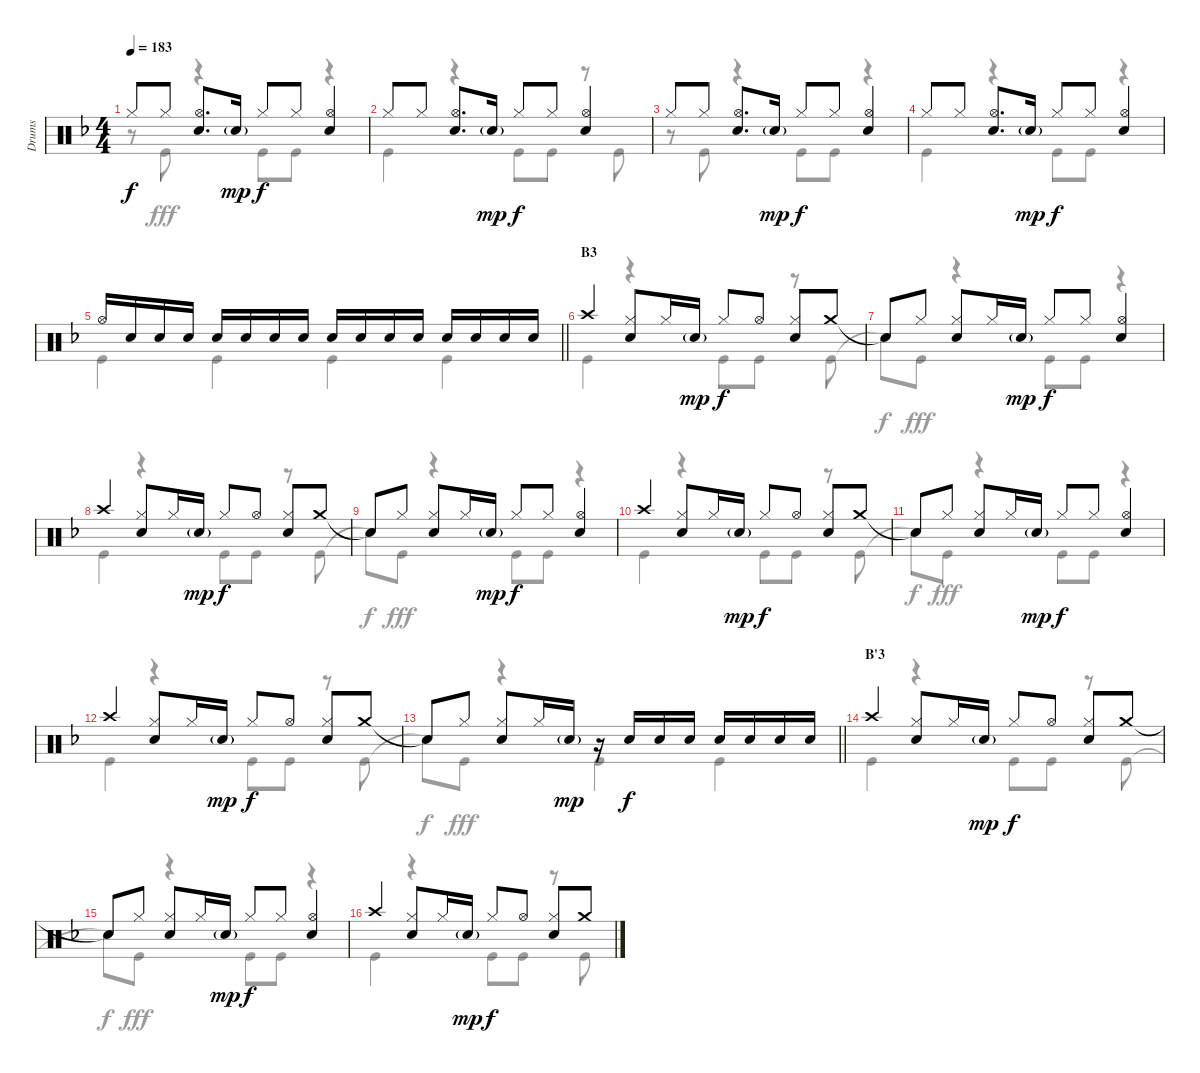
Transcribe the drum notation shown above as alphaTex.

\track ("Drums" "Drums") {instrument percussion}
\staff {score}
\articulation defaults
\voice
\ts (4 4)
\tempo 183
\clef neutral
\ks f "Hi-Hat (closed)".8{dy f} "Hi-Hat (closed)".8
("Hi-Hat (open)" "Snare (hit) 2").8{d} "Snare (hit) 2"{g}.16{dy mp} "Hi-Hat (closed)".8{dy f} "Hi-Hat (closed)".8 ("Hi-Hat (open)" "Snare (hit) 2").4 |
"Hi-Hat (closed)".8 "Hi-Hat (closed)".8 ("Hi-Hat (open)" "Snare (hit) 2").8{d} "Snare (hit) 2"{g}.16{dy mp} "Hi-Hat (closed)".8{dy f} "Hi-Hat (closed)".8 ("Hi-Hat (open)" "Snare (hit) 2").4 |
"Hi-Hat (closed)".8 "Hi-Hat (closed)".8 ("Hi-Hat (open)" "Snare (hit) 2").8{d} "Snare (hit) 2"{g}.16{dy mp} "Hi-Hat (closed)".8{dy f} "Hi-Hat (closed)".8 ("Hi-Hat (open)" "Snare (hit) 2").4 |
"Hi-Hat (closed)".8 "Hi-Hat (closed)".8 ("Hi-Hat (open)" "Snare (hit) 2").8{d} "Snare (hit) 2"{g}.16{dy mp} "Hi-Hat (closed)".8{dy f} "Hi-Hat (closed)".8 ("Hi-Hat (open)" "Snare (hit) 2").4 |
\barLineRight lightlight "Hi-Hat (open)".16 "Snare (hit) 2".16 "Snare (hit) 2".16 "Snare (hit) 2".16 "Snare (hit) 2".16 "Snare (hit) 2".16 "Snare (hit) 2".16 "Snare (hit) 2".16 "Snare (hit) 2".16 "Snare (hit) 2".16 "Snare (hit) 2".16 "Snare (hit) 2".16 "Snare (hit) 2".16 "Snare (hit) 2".16 "Snare (hit) 2".16 "Snare (hit) 2".16
|
\section ("" "B3")
"Crash high (hit)".4 ("Hi-Hat (closed)" "Snare (hit) 2").8 "Hi-Hat (closed)".16 "Snare (hit) 2"{g}.16{dy mp} "Hi-Hat (closed)".8{dy f} "Hi-Hat (open)".8 ("Hi-Hat (closed)" "Snare (hit) 2").8 "Crash medium (hit)".8 |
"Snare (hit)"{t}.8 "Hi-Hat (closed)".8 ("Hi-Hat (closed)" "Snare (hit) 2").8 "Hi-Hat (closed)".16 "Snare (hit) 2"{g}.16{dy mp} "Hi-Hat (closed)".8{dy f} "Hi-Hat (closed)".8 ("Hi-Hat (open)" "Snare (hit) 2").4 |
"Crash high (hit)".4 ("Hi-Hat (closed)" "Snare (hit) 2").8 "Hi-Hat (closed)".16 "Snare (hit) 2"{g}.16{dy mp} "Hi-Hat (closed)".8{dy f} "Hi-Hat (open)".8 ("Hi-Hat (closed)" "Snare (hit) 2").8 "Crash medium (hit)".8 |
"Snare (hit)"{t}.8 "Hi-Hat (closed)".8 ("Hi-Hat (closed)" "Snare (hit) 2").8 "Hi-Hat (closed)".16 "Snare (hit) 2"{g}.16{dy mp} "Hi-Hat (closed)".8{dy f} "Hi-Hat (closed)".8 ("Hi-Hat (open)" "Snare (hit) 2").4 |
"Crash high (hit)".4 ("Hi-Hat (closed)" "Snare (hit) 2").8 "Hi-Hat (closed)".16 "Snare (hit) 2"{g}.16{dy mp} "Hi-Hat (closed)".8{dy f} "Hi-Hat (open)".8 ("Hi-Hat (closed)" "Snare (hit) 2").8 "Crash medium (hit)".8 |
"Snare (hit)"{t}.8 "Hi-Hat (closed)".8 ("Hi-Hat (closed)" "Snare (hit) 2").8 "Hi-Hat (closed)".16 "Snare (hit) 2"{g}.16{dy mp} "Hi-Hat (closed)".8{dy f} "Hi-Hat (closed)".8 ("Hi-Hat (open)" "Snare (hit) 2").4 |
"Crash high (hit)".4 ("Hi-Hat (closed)" "Snare (hit) 2").8 "Hi-Hat (closed)".16 "Snare (hit) 2"{g}.16{dy mp} "Hi-Hat (closed)".8{dy f} "Hi-Hat (open)".8 ("Hi-Hat (closed)" "Snare (hit) 2").8 "Crash medium (hit)".8 |
\barLineRight lightlight "Snare (hit)"{t}.8 "Hi-Hat (closed)".8
("Hi-Hat (closed)" "Snare (hit) 2").8 "Hi-Hat (closed)".16 "Snare (hit) 2"{g}.16{dy mp} r.16 "Snare (hit) 2".16{dy f} "Snare (hit) 2".16 "Snare (hit) 2".16 "Snare (hit) 2".16 "Snare (hit) 2".16 "Snare (hit) 2".16 "Snare (hit) 2".16 |
\section ("" "B'3")
"Crash high (hit)".4 ("Hi-Hat (closed)" "Snare (hit) 2").8 "Hi-Hat (closed)".16 "Snare (hit) 2"{g}.16{dy mp} "Hi-Hat (closed)".8{dy f} "Hi-Hat (open)".8 ("Hi-Hat (closed)" "Snare (hit) 2").8 "Crash medium (hit)".8 |
"Snare (hit)"{t}.8 "Hi-Hat (closed)".8 ("Hi-Hat (closed)" "Snare (hit) 2").8 "Hi-Hat (closed)".16 "Snare (hit) 2"{g}.16{dy mp} "Hi-Hat (closed)".8{dy f} "Hi-Hat (closed)".8 ("Hi-Hat (open)" "Snare (hit) 2").4 |
"Crash high (hit)".4 ("Hi-Hat (closed)" "Snare (hit) 2").8 "Hi-Hat (closed)".16 "Snare (hit) 2"{g}.16{dy mp} "Hi-Hat (closed)".8{dy f} "Hi-Hat (open)".8 ("Hi-Hat (closed)" "Snare (hit) 2").8 "Crash medium (hit)".8
\voice
\clef neutral
\ottava regular
\simile none
\ks f
r.8{dy fff} "Kick (hit)".8 r.4 "Kick (hit)".8 "Kick (hit)".8 r.4 |
"Kick (hit)".4 r.4 "Kick (hit)".8 "Kick (hit)".8 r.8 "Kick (hit)".8 |
r.8 "Kick (hit)".8 r.4 "Kick (hit)".8 "Kick (hit)".8 r.4 |
"Kick (hit)".4 r.4 "Kick (hit)".8 "Kick (hit)".8 r.4 |
\barLineRight lightlight "Kick (hit)".4 "Kick (hit)".4 "Kick (hit)".4 "Kick (hit)".4
|
"Kick (hit)".4 r.4 "Kick (hit)".8 "Kick (hit)".8 r.8 "Kick (hit)".8 |
"Snare (hit)"{t}.8{dy f} "Kick (hit)".8{dy fff} r.4 "Kick (hit)".8 "Kick (hit)".8 r.4 |
"Kick (hit)".4 r.4 "Kick (hit)".8 "Kick (hit)".8 r.8 "Kick (hit)".8 |
"Snare (hit)"{t}.8{dy f} "Kick (hit)".8{dy fff} r.4 "Kick (hit)".8 "Kick (hit)".8 r.4 |
"Kick (hit)".4 r.4 "Kick (hit)".8 "Kick (hit)".8 r.8 "Kick (hit)".8 |
"Snare (hit)"{t}.8{dy f} "Kick (hit)".8{dy fff} r.4 "Kick (hit)".8 "Kick (hit)".8 r.4 |
"Kick (hit)".4 r.4 "Kick (hit)".8 "Kick (hit)".8 r.8 "Kick (hit)".8 |
\barLineRight lightlight "Snare (hit)"{t}.8{dy f} "Kick (hit)".8{dy fff}
r.4 "Kick (hit)".4 "Kick (hit)".4 |
"Kick (hit)".4 r.4 "Kick (hit)".8 "Kick (hit)".8 r.8 "Kick (hit)".8 |
"Snare (hit)"{t}.8{dy f} "Kick (hit)".8{dy fff} r.4 "Kick (hit)".8 "Kick (hit)".8 r.4 |
"Kick (hit)".4 r.4 "Kick (hit)".8 "Kick (hit)".8 r.8 "Kick (hit)".8
